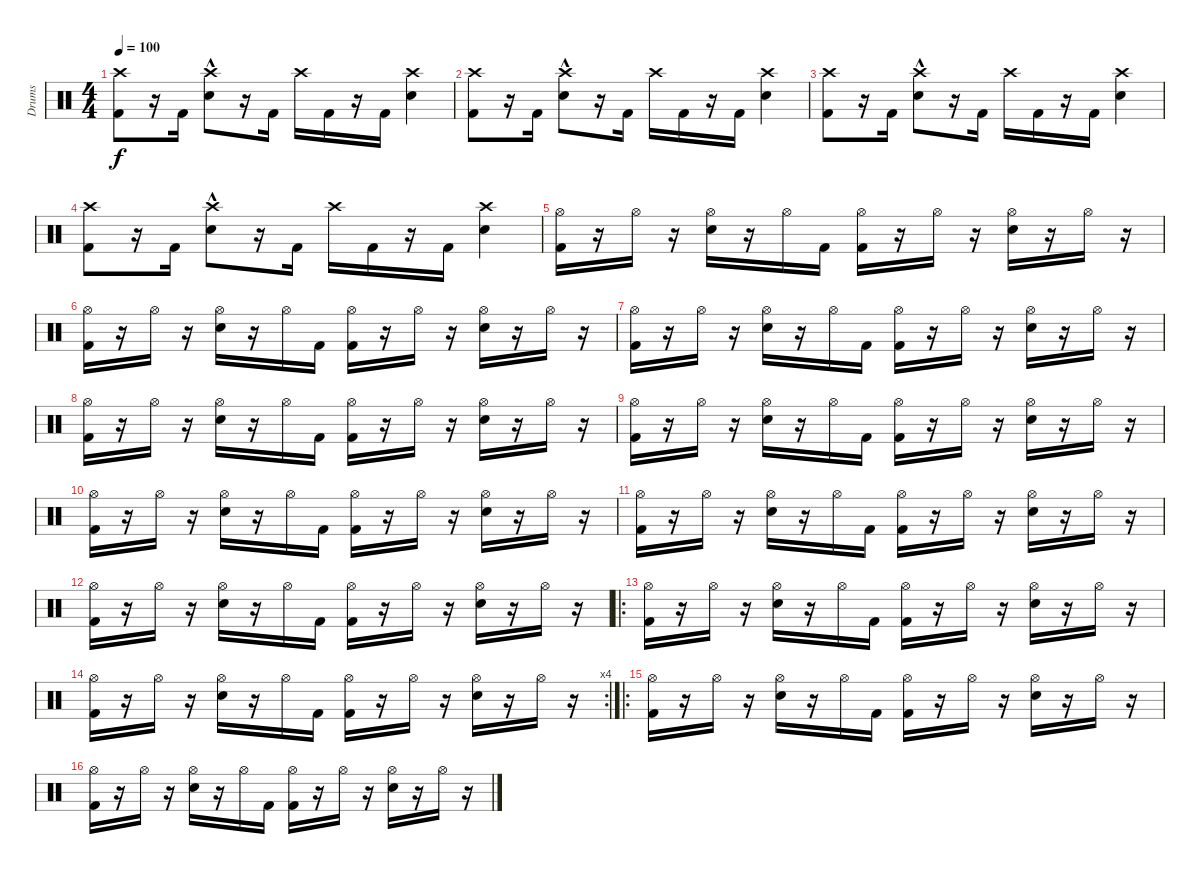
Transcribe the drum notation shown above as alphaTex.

\track ("Drums" "Drums") {instrument percussion}
\staff {score}
\articulation defaults
\ts (4 4)
\tempo 100
\clef neutral
\ks c
("Kick (hit) 2" "Crash high (hit)").8{dy f} r.16 "Kick (hit) 2".16 ("Snare (hit) 2"{hac} "Crash high (hit)").8 r.16 "Kick (hit) 2".16 "Crash high (hit)".16 "Kick (hit) 2".16 r.16 "Kick (hit) 2".16 ("Snare (hit) 2" "Crash high (hit)").4 |
("Kick (hit) 2" "Crash high (hit)").8 r.16 "Kick (hit) 2".16 ("Snare (hit) 2"{hac} "Crash high (hit)").8 r.16 "Kick (hit) 2".16 "Crash high (hit)".16 "Kick (hit) 2".16 r.16 "Kick (hit) 2".16 ("Snare (hit) 2" "Crash high (hit)").4 |
("Kick (hit) 2" "Crash high (hit)").8 r.16 "Kick (hit) 2".16 ("Snare (hit) 2"{hac} "Crash high (hit)").8 r.16 "Kick (hit) 2".16 "Crash high (hit)".16 "Kick (hit) 2".16 r.16 "Kick (hit) 2".16 ("Snare (hit) 2" "Crash high (hit)").4 |
("Kick (hit) 2" "Crash high (hit)").8 r.16 "Kick (hit) 2".16 ("Snare (hit) 2"{hac} "Crash high (hit)").8 r.16 "Kick (hit) 2".16 "Crash high (hit)".16 "Kick (hit) 2".16 r.16 "Kick (hit) 2".16 ("Snare (hit) 2" "Crash high (hit)").4 |
("Kick (hit) 2" "Hi-Hat (open)").16 r.16 "Hi-Hat (open)".16 r.16 ("Snare (hit) 2" "Hi-Hat (open)").16 r.16 "Hi-Hat (open)".16 "Kick (hit) 2".16 ("Kick (hit) 2" "Hi-Hat (open)").16 r.16 "Hi-Hat (open)".16 r.16 ("Snare (hit) 2" "Hi-Hat (open)").16 r.16 "Hi-Hat (open)".16 r.16 |
("Kick (hit) 2" "Hi-Hat (open)").16 r.16 "Hi-Hat (open)".16 r.16 ("Snare (hit) 2" "Hi-Hat (open)").16 r.16 "Hi-Hat (open)".16 "Kick (hit) 2".16 ("Kick (hit) 2" "Hi-Hat (open)").16 r.16 "Hi-Hat (open)".16 r.16 ("Snare (hit) 2" "Hi-Hat (open)").16 r.16 "Hi-Hat (open)".16 r.16 |
("Kick (hit) 2" "Hi-Hat (open)").16 r.16 "Hi-Hat (open)".16 r.16 ("Snare (hit) 2" "Hi-Hat (open)").16 r.16 "Hi-Hat (open)".16 "Kick (hit) 2".16 ("Kick (hit) 2" "Hi-Hat (open)").16 r.16 "Hi-Hat (open)".16 r.16 ("Snare (hit) 2" "Hi-Hat (open)").16 r.16 "Hi-Hat (open)".16 r.16 |
("Kick (hit) 2" "Hi-Hat (open)").16 r.16 "Hi-Hat (open)".16 r.16 ("Snare (hit) 2" "Hi-Hat (open)").16 r.16 "Hi-Hat (open)".16 "Kick (hit) 2".16 ("Kick (hit) 2" "Hi-Hat (open)").16 r.16 "Hi-Hat (open)".16 r.16 ("Snare (hit) 2" "Hi-Hat (open)").16 r.16 "Hi-Hat (open)".16 r.16 |
("Kick (hit) 2" "Hi-Hat (open)").16 r.16 "Hi-Hat (open)".16 r.16 ("Snare (hit) 2" "Hi-Hat (open)").16 r.16 "Hi-Hat (open)".16 "Kick (hit) 2".16 ("Kick (hit) 2" "Hi-Hat (open)").16 r.16 "Hi-Hat (open)".16 r.16 ("Snare (hit) 2" "Hi-Hat (open)").16 r.16 "Hi-Hat (open)".16 r.16 |
("Kick (hit) 2" "Hi-Hat (open)").16 r.16 "Hi-Hat (open)".16 r.16 ("Snare (hit) 2" "Hi-Hat (open)").16 r.16 "Hi-Hat (open)".16 "Kick (hit) 2".16 ("Kick (hit) 2" "Hi-Hat (open)").16 r.16 "Hi-Hat (open)".16 r.16 ("Snare (hit) 2" "Hi-Hat (open)").16 r.16 "Hi-Hat (open)".16 r.16 |
("Kick (hit) 2" "Hi-Hat (open)").16 r.16 "Hi-Hat (open)".16 r.16 ("Snare (hit) 2" "Hi-Hat (open)").16 r.16 "Hi-Hat (open)".16 "Kick (hit) 2".16 ("Kick (hit) 2" "Hi-Hat (open)").16 r.16 "Hi-Hat (open)".16 r.16 ("Snare (hit) 2" "Hi-Hat (open)").16 r.16 "Hi-Hat (open)".16 r.16 |
("Kick (hit) 2" "Hi-Hat (open)").16 r.16 "Hi-Hat (open)".16 r.16 ("Snare (hit) 2" "Hi-Hat (open)").16 r.16 "Hi-Hat (open)".16 "Kick (hit) 2".16 ("Kick (hit) 2" "Hi-Hat (open)").16 r.16 "Hi-Hat (open)".16 r.16 ("Snare (hit) 2" "Hi-Hat (open)").16 r.16 "Hi-Hat (open)".16 r.16 |
\ro
("Kick (hit) 2" "Hi-Hat (open)").16 r.16 "Hi-Hat (open)".16 r.16 ("Snare (hit) 2" "Hi-Hat (open)").16 r.16 "Hi-Hat (open)".16 "Kick (hit) 2".16 ("Kick (hit) 2" "Hi-Hat (open)").16 r.16 "Hi-Hat (open)".16 r.16 ("Snare (hit) 2" "Hi-Hat (open)").16 r.16 "Hi-Hat (open)".16 r.16 |
\rc 4
("Kick (hit) 2" "Hi-Hat (open)").16 r.16 "Hi-Hat (open)".16 r.16 ("Snare (hit) 2" "Hi-Hat (open)").16 r.16 "Hi-Hat (open)".16 "Kick (hit) 2".16 ("Kick (hit) 2" "Hi-Hat (open)").16 r.16 "Hi-Hat (open)".16 r.16 ("Snare (hit) 2" "Hi-Hat (open)").16 r.16 "Hi-Hat (open)".16 r.16 |
\ro
("Kick (hit) 2" "Hi-Hat (open)").16 r.16 "Hi-Hat (open)".16 r.16 ("Snare (hit) 2" "Hi-Hat (open)").16 r.16 "Hi-Hat (open)".16 "Kick (hit) 2".16 ("Kick (hit) 2" "Hi-Hat (open)").16 r.16 "Hi-Hat (open)".16 r.16 ("Snare (hit) 2" "Hi-Hat (open)").16 r.16 "Hi-Hat (open)".16 r.16 |
("Kick (hit) 2" "Hi-Hat (open)").16 r.16 "Hi-Hat (open)".16 r.16 ("Snare (hit) 2" "Hi-Hat (open)").16 r.16 "Hi-Hat (open)".16 "Kick (hit) 2".16 ("Kick (hit) 2" "Hi-Hat (open)").16 r.16 "Hi-Hat (open)".16 r.16 ("Snare (hit) 2" "Hi-Hat (open)").16 r.16 "Hi-Hat (open)".16 r.16
